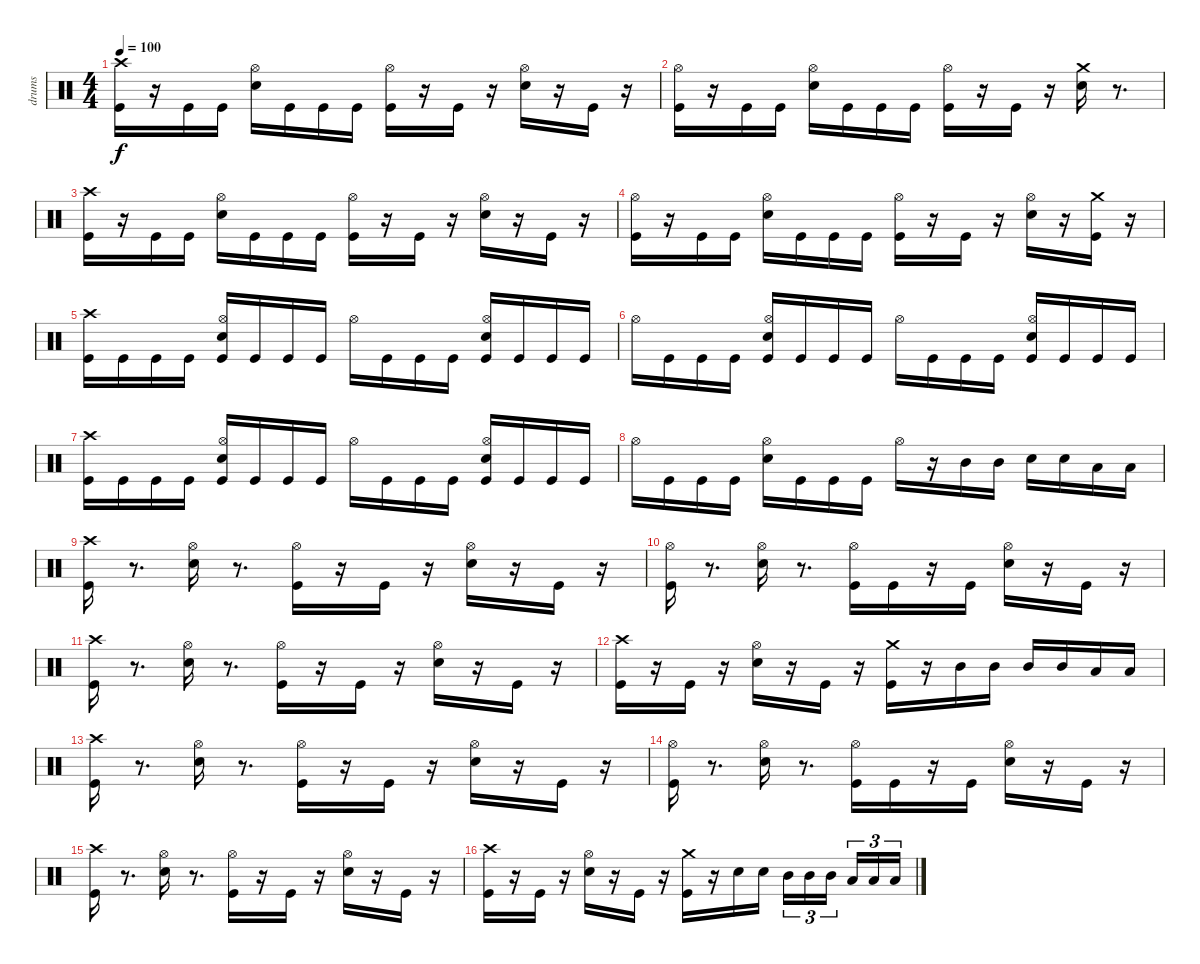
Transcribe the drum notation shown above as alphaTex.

\track ("drums" "drums") {instrument percussion}
\staff {score}
\articulation defaults
\ts (4 4)
\tempo 100
\clef neutral
\ks c
("Crash high (hit)" "Kick (hit)").16{dy f} r.16 "Kick (hit)".16 "Kick (hit)".16 ("Hi-Hat (open)" "Snare (hit) 2").16 "Kick (hit)".16 "Kick (hit)".16 "Kick (hit)".16 ("Hi-Hat (open)" "Kick (hit)").16 r.16 "Kick (hit)".16 r.16 ("Snare (hit) 2" "Hi-Hat (open)").16 r.16 "Kick (hit)".16 r.16 |
("Hi-Hat (open)" "Kick (hit)").16 r.16 "Kick (hit)".16 "Kick (hit)".16 ("Hi-Hat (open)" "Snare (hit) 2").16 "Kick (hit)".16 "Kick (hit)".16 "Kick (hit)".16 ("Hi-Hat (open)" "Kick (hit)").16 r.16 "Kick (hit)".16 r.16 ("Crash medium (hit)" "Snare (hit) 2").16 r.8{d} |
("Crash high (hit)" "Kick (hit)").16 r.16 "Kick (hit)".16 "Kick (hit)".16 ("Hi-Hat (open)" "Snare (hit) 2").16 "Kick (hit)".16 "Kick (hit)".16 "Kick (hit)".16 ("Hi-Hat (open)" "Kick (hit)").16 r.16 "Kick (hit)".16 r.16 ("Snare (hit) 2" "Hi-Hat (open)").16 r.16 "Kick (hit)".16 r.16 |
("Hi-Hat (open)" "Kick (hit)").16 r.16 "Kick (hit)".16 "Kick (hit)".16 ("Hi-Hat (open)" "Snare (hit) 2").16 "Kick (hit)".16 "Kick (hit)".16 "Kick (hit)".16 ("Hi-Hat (open)" "Kick (hit)").16 r.16 "Kick (hit)".16 r.16 ("Snare (hit) 2" "Hi-Hat (open)").16 r.16 ("Kick (hit)" "Crash medium (hit)").16 r.16 |
("Kick (hit)" "Crash high (hit)").16 "Kick (hit)".16 "Kick (hit)".16 "Kick (hit)".16 ("Kick (hit)" "Hi-Hat (open)" "Snare (hit) 2").16 "Kick (hit)".16 "Kick (hit)".16 "Kick (hit)".16 "Hi-Hat (open)".16 "Kick (hit)".16 "Kick (hit)".16 "Kick (hit)".16 ("Kick (hit)" "Snare (hit) 2" "Hi-Hat (open)").16 "Kick (hit)".16 "Kick (hit)".16 "Kick (hit)".16 |
"Hi-Hat (open)".16 "Kick (hit)".16 "Kick (hit)".16 "Kick (hit)".16 ("Kick (hit)" "Hi-Hat (open)" "Snare (hit) 2").16 "Kick (hit)".16 "Kick (hit)".16 "Kick (hit)".16 "Hi-Hat (open)".16 "Kick (hit)".16 "Kick (hit)".16 "Kick (hit)".16 ("Hi-Hat (open)" "Kick (hit)" "Snare (hit) 2").16 "Kick (hit)".16 "Kick (hit)".16 "Kick (hit)".16 |
("Crash high (hit)" "Kick (hit)").16 "Kick (hit)".16 "Kick (hit)".16 "Kick (hit)".16 ("Kick (hit)" "Hi-Hat (open)" "Snare (hit) 2").16 "Kick (hit)".16 "Kick (hit)".16 "Kick (hit)".16 "Hi-Hat (open)".16 "Kick (hit)".16 "Kick (hit)".16 "Kick (hit)".16 ("Kick (hit)" "Snare (hit) 2" "Hi-Hat (open)").16 "Kick (hit)".16 "Kick (hit)".16 "Kick (hit)".16 |
"Hi-Hat (open)".16 "Kick (hit)".16 "Kick (hit)".16 "Kick (hit)".16 ("Hi-Hat (open)" "Snare (hit) 2").16 "Kick (hit)".16 "Kick (hit)".16 "Kick (hit)".16 "Hi-Hat (open)".16 r.16 "Mid Tom (hit)".16 "Mid Tom (hit)".16 "Snare (hit) 2".16 "Snare (hit) 2".16 "Low Tom (hit)".16 "Low Tom (hit)".16 |
("Crash high (hit)" "Kick (hit)").16 r.8{d} ("Hi-Hat (open)" "Snare (hit) 2").16 r.8{d} ("Hi-Hat (open)" "Kick (hit)").16 r.16 "Kick (hit)".16 r.16 ("Hi-Hat (open)" "Snare (hit) 2").16 r.16 "Kick (hit)".16 r.16 |
("Hi-Hat (open)" "Kick (hit)").16 r.8{d} ("Hi-Hat (open)" "Snare (hit) 2").16 r.8{d} ("Hi-Hat (open)" "Kick (hit)").16 "Kick (hit)".16 r.16 "Kick (hit)".16 ("Hi-Hat (open)" "Snare (hit) 2").16 r.16 "Kick (hit)".16 r.16 |
("Crash high (hit)" "Kick (hit)").16 r.8{d} ("Hi-Hat (open)" "Snare (hit) 2").16 r.8{d} ("Hi-Hat (open)" "Kick (hit)").16 r.16 "Kick (hit)".16 r.16 ("Hi-Hat (open)" "Snare (hit) 2").16 r.16 "Kick (hit)".16 r.16 |
("Crash high (hit)" "Kick (hit)").16 r.16 "Kick (hit)".16 r.16 ("Hi-Hat (open)" "Snare (hit) 2").16 r.16 "Kick (hit)".16 r.16 ("Crash medium (hit)" "Kick (hit)").16 r.16 "Mid Tom (hit)".16 "Mid Tom (hit)".16 "Mid Tom (hit)".16 "Mid Tom (hit)".16 "Low Tom (hit)".16 "Low Tom (hit)".16 |
("Crash high (hit)" "Kick (hit)").16 r.8{d} ("Hi-Hat (open)" "Snare (hit) 2").16 r.8{d} ("Hi-Hat (open)" "Kick (hit)").16 r.16 "Kick (hit)".16 r.16 ("Hi-Hat (open)" "Snare (hit) 2").16 r.16 "Kick (hit)".16 r.16 |
("Hi-Hat (open)" "Kick (hit)").16 r.8{d} ("Hi-Hat (open)" "Snare (hit) 2").16 r.8{d} ("Hi-Hat (open)" "Kick (hit)").16 "Kick (hit)".16 r.16 "Kick (hit)".16 ("Hi-Hat (open)" "Snare (hit) 2").16 r.16 "Kick (hit)".16 r.16 |
("Crash high (hit)" "Kick (hit)").16 r.8{d} ("Hi-Hat (open)" "Snare (hit) 2").16 r.8{d} ("Hi-Hat (open)" "Kick (hit)").16 r.16 "Kick (hit)".16 r.16 ("Hi-Hat (open)" "Snare (hit) 2").16 r.16 "Kick (hit)".16 r.16 |
("Crash high (hit)" "Kick (hit)").16 r.16 "Kick (hit)".16 r.16 ("Hi-Hat (open)" "Snare (hit) 2").16 r.16 "Kick (hit)".16 r.16 ("Crash medium (hit)" "Kick (hit)").16 r.16 "Snare (hit) 2".16 "Snare (hit) 2".16 "Mid Tom (hit)".16{tu (3 2)} "Mid Tom (hit)".16{tu (3 2)} "Mid Tom (hit)".16{tu (3 2)} "Low Tom (hit)".16{tu (3 2)} "Low Tom (hit)".16{tu (3 2)} "Low Tom (hit)".16{tu (3 2)}
